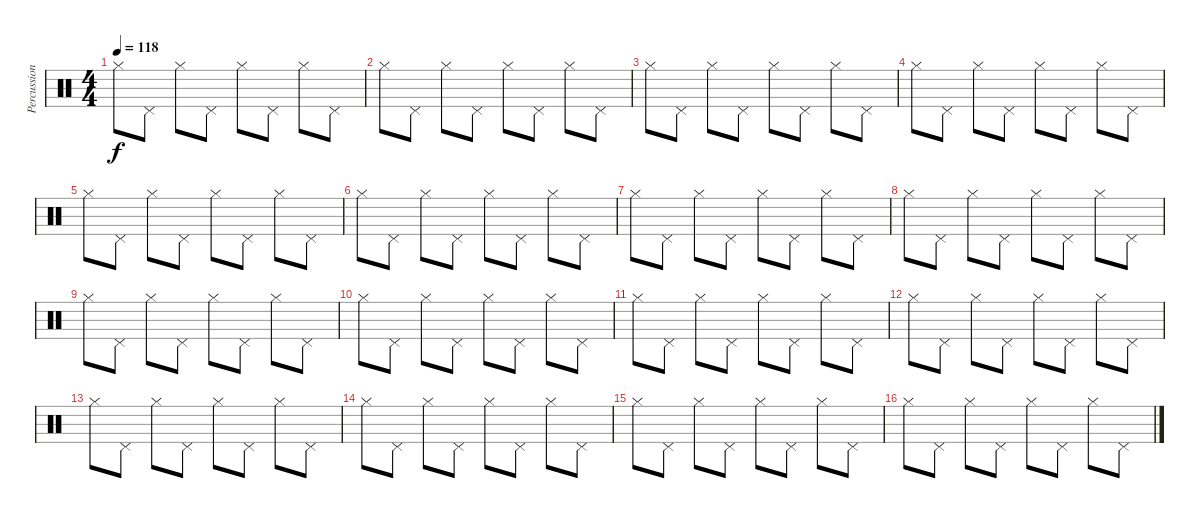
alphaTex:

\track ("Percussion (RSE)" "Percussion") {instrument percussion}
\staff {score}
\articulation defaults
\ts (4 4)
\tempo 118
\clef neutral
\ks c "Hi-Hat (closed)".8{dy f} "Pedal Hi-Hat (hit)".8 "Hi-Hat (closed)".8 "Pedal Hi-Hat (hit)".8 "Hi-Hat (closed)".8 "Pedal Hi-Hat (hit)".8 "Hi-Hat (closed)".8 "Pedal Hi-Hat (hit)".8
|
"Hi-Hat (closed)".8 "Pedal Hi-Hat (hit)".8 "Hi-Hat (closed)".8 "Pedal Hi-Hat (hit)".8 "Hi-Hat (closed)".8 "Pedal Hi-Hat (hit)".8 "Hi-Hat (closed)".8 "Pedal Hi-Hat (hit)".8 |
"Hi-Hat (closed)".8 "Pedal Hi-Hat (hit)".8 "Hi-Hat (closed)".8 "Pedal Hi-Hat (hit)".8 "Hi-Hat (closed)".8 "Pedal Hi-Hat (hit)".8 "Hi-Hat (closed)".8 "Pedal Hi-Hat (hit)".8 |
"Hi-Hat (closed)".8 "Pedal Hi-Hat (hit)".8 "Hi-Hat (closed)".8 "Pedal Hi-Hat (hit)".8 "Hi-Hat (closed)".8 "Pedal Hi-Hat (hit)".8 "Hi-Hat (closed)".8 "Pedal Hi-Hat (hit)".8 |
"Hi-Hat (closed)".8 "Pedal Hi-Hat (hit)".8 "Hi-Hat (closed)".8 "Pedal Hi-Hat (hit)".8 "Hi-Hat (closed)".8 "Pedal Hi-Hat (hit)".8 "Hi-Hat (closed)".8 "Pedal Hi-Hat (hit)".8 |
"Hi-Hat (closed)".8 "Pedal Hi-Hat (hit)".8 "Hi-Hat (closed)".8 "Pedal Hi-Hat (hit)".8 "Hi-Hat (closed)".8 "Pedal Hi-Hat (hit)".8 "Hi-Hat (closed)".8 "Pedal Hi-Hat (hit)".8 |
"Hi-Hat (closed)".8 "Pedal Hi-Hat (hit)".8 "Hi-Hat (closed)".8 "Pedal Hi-Hat (hit)".8 "Hi-Hat (closed)".8 "Pedal Hi-Hat (hit)".8 "Hi-Hat (closed)".8 "Pedal Hi-Hat (hit)".8 |
"Hi-Hat (closed)".8 "Pedal Hi-Hat (hit)".8 "Hi-Hat (closed)".8 "Pedal Hi-Hat (hit)".8 "Hi-Hat (closed)".8 "Pedal Hi-Hat (hit)".8 "Hi-Hat (closed)".8 "Pedal Hi-Hat (hit)".8 |
"Hi-Hat (closed)".8 "Pedal Hi-Hat (hit)".8 "Hi-Hat (closed)".8 "Pedal Hi-Hat (hit)".8 "Hi-Hat (closed)".8 "Pedal Hi-Hat (hit)".8 "Hi-Hat (closed)".8 "Pedal Hi-Hat (hit)".8 |
"Hi-Hat (closed)".8 "Pedal Hi-Hat (hit)".8 "Hi-Hat (closed)".8 "Pedal Hi-Hat (hit)".8 "Hi-Hat (closed)".8 "Pedal Hi-Hat (hit)".8 "Hi-Hat (closed)".8 "Pedal Hi-Hat (hit)".8 |
"Hi-Hat (closed)".8 "Pedal Hi-Hat (hit)".8 "Hi-Hat (closed)".8 "Pedal Hi-Hat (hit)".8 "Hi-Hat (closed)".8 "Pedal Hi-Hat (hit)".8 "Hi-Hat (closed)".8 "Pedal Hi-Hat (hit)".8 |
"Hi-Hat (closed)".8 "Pedal Hi-Hat (hit)".8 "Hi-Hat (closed)".8 "Pedal Hi-Hat (hit)".8 "Hi-Hat (closed)".8 "Pedal Hi-Hat (hit)".8 "Hi-Hat (closed)".8 "Pedal Hi-Hat (hit)".8 |
"Hi-Hat (closed)".8 "Pedal Hi-Hat (hit)".8 "Hi-Hat (closed)".8 "Pedal Hi-Hat (hit)".8 "Hi-Hat (closed)".8 "Pedal Hi-Hat (hit)".8 "Hi-Hat (closed)".8 "Pedal Hi-Hat (hit)".8 |
"Hi-Hat (closed)".8 "Pedal Hi-Hat (hit)".8 "Hi-Hat (closed)".8 "Pedal Hi-Hat (hit)".8 "Hi-Hat (closed)".8 "Pedal Hi-Hat (hit)".8 "Hi-Hat (closed)".8 "Pedal Hi-Hat (hit)".8 |
"Hi-Hat (closed)".8 "Pedal Hi-Hat (hit)".8 "Hi-Hat (closed)".8 "Pedal Hi-Hat (hit)".8 "Hi-Hat (closed)".8 "Pedal Hi-Hat (hit)".8 "Hi-Hat (closed)".8 "Pedal Hi-Hat (hit)".8 |
"Hi-Hat (closed)".8 "Pedal Hi-Hat (hit)".8 "Hi-Hat (closed)".8 "Pedal Hi-Hat (hit)".8 "Hi-Hat (closed)".8 "Pedal Hi-Hat (hit)".8 "Hi-Hat (closed)".8 "Pedal Hi-Hat (hit)".8
